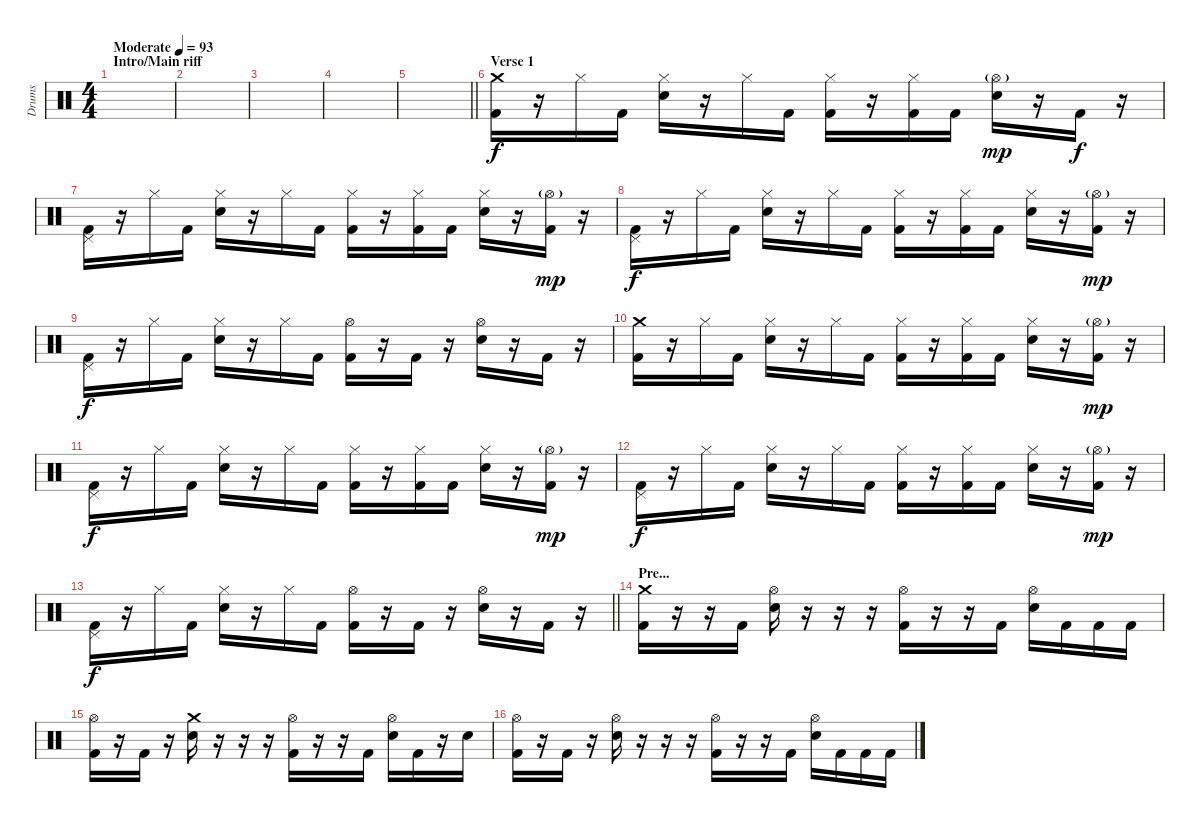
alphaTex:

\track ("Drums" "Drums") {instrument percussion}
\staff {score}
\articulation defaults
\ts (4 4)
\section ("" "Intro/Main riff")
\tempo (93 "Moderate")
\clef neutral
\ks c
|
|
|
|
\barLineRight lightlight
|
\section ("" "Verse 1")
("Crash medium (hit)" "Kick (hit) 2").16 r.16 "Hi-Hat (closed)".16 "Kick (hit) 2".16 ("Hi-Hat (closed)" "Electric Snare (hit)").16 r.16 "Hi-Hat (closed)".16 "Kick (hit) 2".16 ("Hi-Hat (closed)" "Kick (hit) 2").16 r.16 ("Hi-Hat (closed)" "Kick (hit) 2").16 "Kick (hit) 2".16 ("Hi-Hat (open)"{g} "Electric Snare (hit)").16{dy mp} r.16 "Kick (hit) 2".16{dy f} r.16 |
("Pedal Hi-Hat (hit)" "Kick (hit) 2").16 r.16 "Hi-Hat (closed)".16 "Kick (hit) 2".16 ("Hi-Hat (closed)" "Electric Snare (hit)").16 r.16 "Hi-Hat (closed)".16 "Kick (hit) 2".16 ("Hi-Hat (closed)" "Kick (hit) 2").16 r.16 ("Hi-Hat (closed)" "Kick (hit) 2").16 "Kick (hit) 2".16 ("Hi-Hat (closed)" "Electric Snare (hit)").16 r.16 ("Hi-Hat (open)"{g} "Kick (hit) 2").16{dy mp} r.16 |
("Pedal Hi-Hat (hit)" "Kick (hit) 2").16{dy f} r.16 "Hi-Hat (closed)".16 "Kick (hit) 2".16 ("Hi-Hat (closed)" "Electric Snare (hit)").16 r.16 "Hi-Hat (closed)".16 "Kick (hit) 2".16 ("Hi-Hat (closed)" "Kick (hit) 2").16 r.16 ("Hi-Hat (closed)" "Kick (hit) 2").16 "Kick (hit) 2".16 ("Hi-Hat (closed)" "Electric Snare (hit)").16 r.16 ("Hi-Hat (open)"{g} "Kick (hit) 2").16{dy mp} r.16 |
("Pedal Hi-Hat (hit)" "Kick (hit) 2").16{dy f} r.16 "Hi-Hat (closed)".16 "Kick (hit) 2".16 ("Hi-Hat (closed)" "Electric Snare (hit)").16 r.16 "Hi-Hat (closed)".16 "Kick (hit) 2".16 ("Hi-Hat (open)" "Kick (hit) 2").16 r.16 "Kick (hit) 2".16 r.16 ("Hi-Hat (open)" "Electric Snare (hit)").16 r.16 "Kick (hit) 2".16 r.16 |
("Crash medium (hit)" "Kick (hit) 2").16 r.16 "Hi-Hat (closed)".16 "Kick (hit) 2".16 ("Hi-Hat (closed)" "Electric Snare (hit)").16 r.16 "Hi-Hat (closed)".16 "Kick (hit) 2".16 ("Hi-Hat (closed)" "Kick (hit) 2").16 r.16 ("Hi-Hat (closed)" "Kick (hit) 2").16 "Kick (hit) 2".16 ("Hi-Hat (closed)" "Electric Snare (hit)").16 r.16 ("Hi-Hat (open)"{g} "Kick (hit) 2").16{dy mp} r.16 |
("Pedal Hi-Hat (hit)" "Kick (hit) 2").16{dy f} r.16 "Hi-Hat (closed)".16 "Kick (hit) 2".16 ("Hi-Hat (closed)" "Electric Snare (hit)").16 r.16 "Hi-Hat (closed)".16 "Kick (hit) 2".16 ("Hi-Hat (closed)" "Kick (hit) 2").16 r.16 ("Hi-Hat (closed)" "Kick (hit) 2").16 "Kick (hit) 2".16 ("Hi-Hat (closed)" "Electric Snare (hit)").16 r.16 ("Hi-Hat (open)"{g} "Kick (hit) 2").16{dy mp} r.16 |
("Pedal Hi-Hat (hit)" "Kick (hit) 2").16{dy f} r.16 "Hi-Hat (closed)".16 "Kick (hit) 2".16 ("Hi-Hat (closed)" "Electric Snare (hit)").16 r.16 "Hi-Hat (closed)".16 "Kick (hit) 2".16 ("Hi-Hat (closed)" "Kick (hit) 2").16 r.16 ("Hi-Hat (closed)" "Kick (hit) 2").16 "Kick (hit) 2".16 ("Hi-Hat (closed)" "Electric Snare (hit)").16 r.16 ("Hi-Hat (open)"{g} "Kick (hit) 2").16{dy mp} r.16 |
\barLineRight lightlight
("Pedal Hi-Hat (hit)" "Kick (hit) 2").16{dy f} r.16 "Hi-Hat (closed)".16 "Kick (hit) 2".16 ("Hi-Hat (closed)" "Electric Snare (hit)").16 r.16 "Hi-Hat (closed)".16 "Kick (hit) 2".16 ("Hi-Hat (open)" "Kick (hit) 2").16 r.16 "Kick (hit) 2".16 r.16 ("Hi-Hat (open)" "Electric Snare (hit)").16 r.16 "Kick (hit) 2".16 r.16 |
\section ("" "Pre...")
("Crash medium (hit)" "Kick (hit) 2").16 r.16 r.16 "Kick (hit) 2".16 ("Hi-Hat (open)" "Electric Snare (hit)").16 r.16 r.16 r.16 ("Hi-Hat (open)" "Kick (hit) 2").16 r.16 r.16 "Kick (hit) 2".16 ("Hi-Hat (open)" "Electric Snare (hit)").16 "Kick (hit) 2".16 "Kick (hit) 2".16 "Kick (hit) 2".16 |
("Hi-Hat (open)" "Kick (hit) 2").16 r.16 "Kick (hit) 2".16 r.16 ("Crash medium (hit)" "Electric Snare (hit)").16 r.16 r.16 r.16 ("Hi-Hat (open)" "Kick (hit) 2").16 r.16 r.16 "Kick (hit) 2".16 ("Hi-Hat (open)" "Electric Snare (hit)").16 "Kick (hit) 2".16 r.16 "Electric Snare (hit)".16 |
("Hi-Hat (open)" "Kick (hit) 2").16 r.16 "Kick (hit) 2".16 r.16 ("Hi-Hat (open)" "Electric Snare (hit)").16 r.16 r.16 r.16 ("Hi-Hat (open)" "Kick (hit) 2").16 r.16 r.16 "Kick (hit) 2".16 ("Hi-Hat (open)" "Electric Snare (hit)").16 "Kick (hit) 2".16 "Kick (hit) 2".16 "Kick (hit) 2".16
